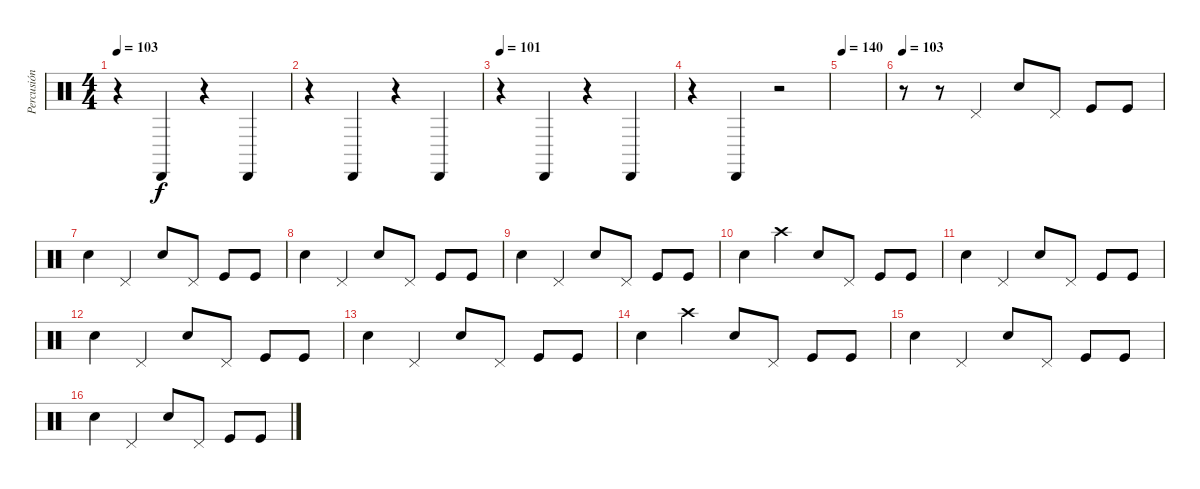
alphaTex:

\track ("Percusión" "Percusión") {instrument percussion}
\staff {score}
\articulation defaults
\ts (4 4)
\tempo 103
\clef neutral
\ks c
r.4{dy f} "Cabasa (hit)".4 r.4 "Cabasa (hit)".4 |
r.4 "Cabasa (hit)".4 r.4 "Cabasa (hit)".4 |
\tempo 101
r.4 "Cabasa (hit)".4 r.4 "Cabasa (hit)".4 |
r.4 "Cabasa (hit)".4 r.2 |
\tempo 140
|
\tempo 103
r.8 r.8 "Pedal Hi-Hat (hit)".4{volume 10} "Hand Clap (hit)".8 "Pedal Hi-Hat (hit)".8 "Kick (hit)".8 "Kick (hit)".8 |
"Hand Clap (hit)".4 "Pedal Hi-Hat (hit)".4 "Hand Clap (hit)".8 "Pedal Hi-Hat (hit)".8 "Kick (hit)".8 "Kick (hit)".8 |
"Hand Clap (hit)".4 "Pedal Hi-Hat (hit)".4 "Hand Clap (hit)".8 "Pedal Hi-Hat (hit)".8 "Kick (hit)".8 "Kick (hit)".8 |
"Hand Clap (hit)".4 "Pedal Hi-Hat (hit)".4 "Hand Clap (hit)".8 "Pedal Hi-Hat (hit)".8 "Kick (hit)".8 "Kick (hit)".8 |
"Hand Clap (hit)".4 "Crash high (hit)".4 "Hand Clap (hit)".8 "Pedal Hi-Hat (hit)".8 "Kick (hit)".8 "Kick (hit)".8 |
"Hand Clap (hit)".4 "Pedal Hi-Hat (hit)".4 "Hand Clap (hit)".8 "Pedal Hi-Hat (hit)".8 "Kick (hit)".8 "Kick (hit)".8 |
"Hand Clap (hit)".4 "Pedal Hi-Hat (hit)".4 "Hand Clap (hit)".8 "Pedal Hi-Hat (hit)".8 "Kick (hit)".8 "Kick (hit)".8 |
"Hand Clap (hit)".4 "Pedal Hi-Hat (hit)".4 "Hand Clap (hit)".8 "Pedal Hi-Hat (hit)".8 "Kick (hit)".8 "Kick (hit)".8 |
"Hand Clap (hit)".4 "Crash high (hit)".4 "Hand Clap (hit)".8 "Pedal Hi-Hat (hit)".8 "Kick (hit)".8 "Kick (hit)".8 |
"Hand Clap (hit)".4 "Pedal Hi-Hat (hit)".4 "Hand Clap (hit)".8 "Pedal Hi-Hat (hit)".8 "Kick (hit)".8 "Kick (hit)".8 |
"Hand Clap (hit)".4 "Pedal Hi-Hat (hit)".4 "Hand Clap (hit)".8 "Pedal Hi-Hat (hit)".8 "Kick (hit)".8 "Kick (hit)".8
